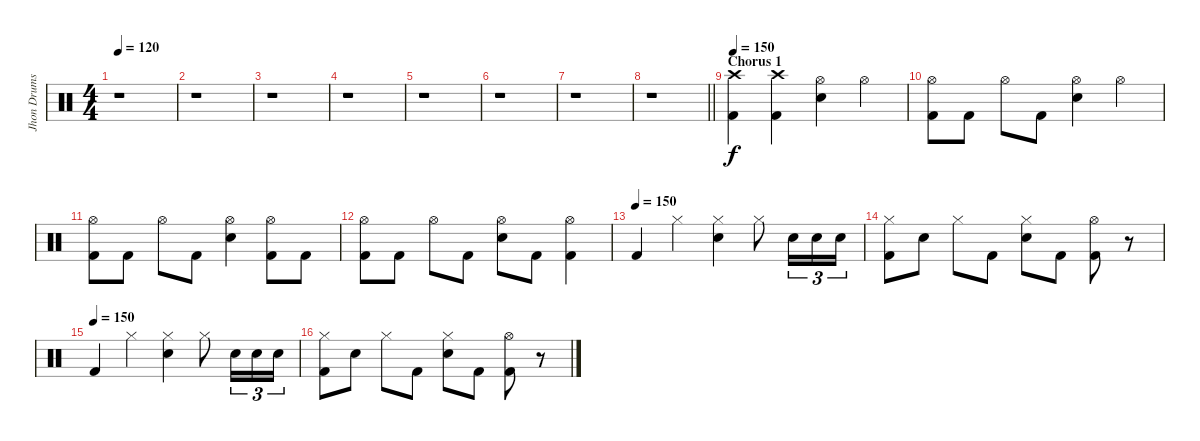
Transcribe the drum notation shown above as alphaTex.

\track ("Jhon Drums" "Jhon Drums") {instrument percussion}
\staff {score}
\articulation defaults
\ts (4 4)
\tempo 120
\clef neutral
\ks c
r.1{dy f} |
r.1 |
r.1 |
r.1 |
r.1 |
r.1 |
r.1 |
\barLineRight lightlight
r.1 |
\section ("" "Chorus 1")
\tempo 150
("Crash high (hit)" "Kick (hit) 2").4 ("Crash high (hit)" "Kick (hit) 2").4 ("Hi-Hat (open)" "Electric Snare (hit)").4 "Hi-Hat (open)".4 |
("Hi-Hat (open)" "Kick (hit) 2").8 "Kick (hit) 2".8 "Hi-Hat (open)".8 "Kick (hit) 2".8 ("Hi-Hat (open)" "Electric Snare (hit)").4 "Hi-Hat (open)".4 |
("Hi-Hat (open)" "Kick (hit) 2").8 "Kick (hit) 2".8 "Hi-Hat (open)".8 "Kick (hit) 2".8 ("Hi-Hat (open)" "Electric Snare (hit)").4 ("Hi-Hat (open)" "Kick (hit) 2").8 "Kick (hit) 2".8 |
("Hi-Hat (open)" "Kick (hit) 2").8 "Kick (hit) 2".8 "Hi-Hat (open)".8 "Kick (hit) 2".8 ("Hi-Hat (open)" "Electric Snare (hit)").8 "Kick (hit) 2".8 ("Hi-Hat (open)" "Kick (hit) 2").4 |
\tempo (150)
"Kick (hit) 2".4 "Hi-Hat (closed)".4 ("Hi-Hat (closed)" "Electric Snare (hit)").4 "Hi-Hat (closed)".8 "Electric Snare (hit)".16{tu (3 2)} "Electric Snare (hit)".16{tu (3 2)} "Electric Snare (hit)".16{tu (3 2)} |
("Hi-Hat (closed)" "Kick (hit) 2").8 "Electric Snare (hit)".8 "Hi-Hat (closed)".8 "Kick (hit) 2".8 ("Hi-Hat (closed)" "Electric Snare (hit)").8 "Kick (hit) 2".8 ("Hi-Hat (open)" "Kick (hit) 2").8 r.8 |
\tempo (150)
"Kick (hit) 2".4 "Hi-Hat (closed)".4 ("Hi-Hat (closed)" "Electric Snare (hit)").4 "Hi-Hat (closed)".8 "Electric Snare (hit)".16{tu (3 2)} "Electric Snare (hit)".16{tu (3 2)} "Electric Snare (hit)".16{tu (3 2)} |
("Hi-Hat (closed)" "Kick (hit) 2").8 "Electric Snare (hit)".8 "Hi-Hat (closed)".8 "Kick (hit) 2".8 ("Hi-Hat (closed)" "Electric Snare (hit)").8 "Kick (hit) 2".8 ("Hi-Hat (open)" "Kick (hit) 2").8 r.8
